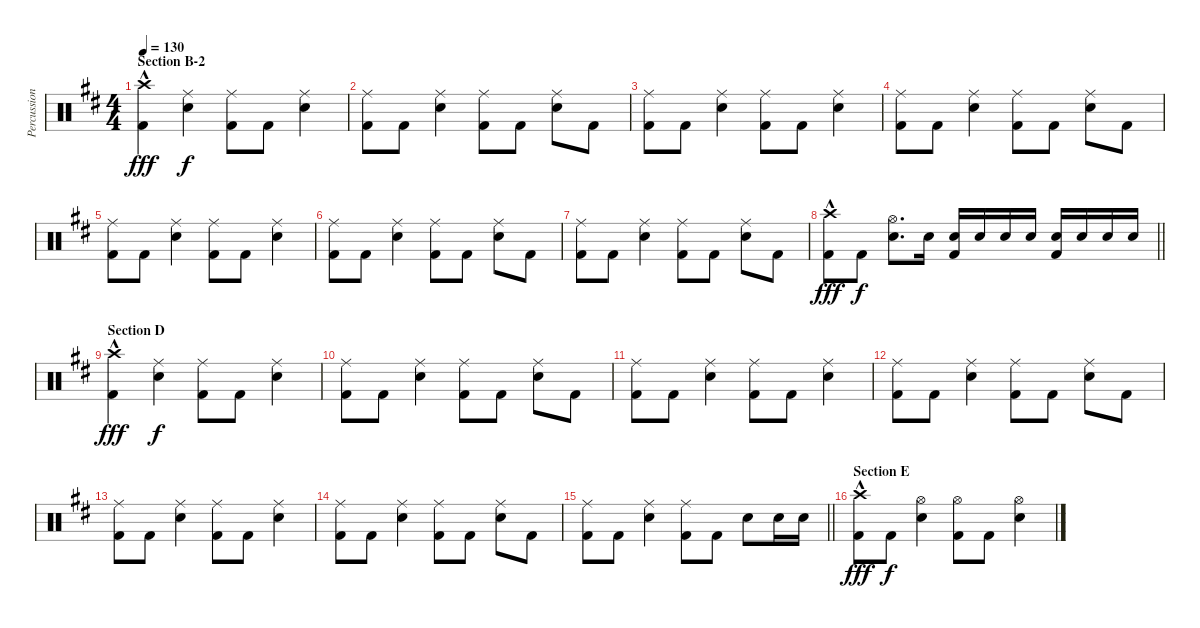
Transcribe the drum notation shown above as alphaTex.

\track ("Percussion" "Percussion") {instrument percussion}
\staff {score}
\articulation defaults
\ts (4 4)
\section ("" "Section B-2")
\tempo 130
\clef neutral
\ks d
("Crash high (hit)" "Kick (hit) 2"{hac}).4{dy fff} ("Ride (middle)" "Snare (hit) 2").4{dy f} ("Ride (middle)" "Kick (hit) 2").8 "Kick (hit) 2".8 ("Ride (middle)" "Snare (hit) 2").4 |
("Ride (middle)" "Kick (hit) 2").8 "Kick (hit) 2".8 ("Ride (middle)" "Snare (hit) 2").4 ("Ride (middle)" "Kick (hit) 2").8 "Kick (hit) 2".8 ("Ride (middle)" "Snare (hit) 2").8 "Kick (hit) 2".8 |
("Ride (middle)" "Kick (hit) 2").8 "Kick (hit) 2".8 ("Ride (middle)" "Snare (hit) 2").4 ("Ride (middle)" "Kick (hit) 2").8 "Kick (hit) 2".8 ("Ride (middle)" "Snare (hit) 2").4 |
("Ride (middle)" "Kick (hit) 2").8 "Kick (hit) 2".8 ("Ride (middle)" "Snare (hit) 2").4 ("Ride (middle)" "Kick (hit) 2").8 "Kick (hit) 2".8 ("Ride (middle)" "Snare (hit) 2").8 "Kick (hit) 2".8 |
("Ride (middle)" "Kick (hit) 2").8 "Kick (hit) 2".8 ("Ride (middle)" "Snare (hit) 2").4 ("Ride (middle)" "Kick (hit) 2").8 "Kick (hit) 2".8 ("Ride (middle)" "Snare (hit) 2").4 |
("Ride (middle)" "Kick (hit) 2").8 "Kick (hit) 2".8 ("Ride (middle)" "Snare (hit) 2").4 ("Ride (middle)" "Kick (hit) 2").8 "Kick (hit) 2".8 ("Ride (middle)" "Snare (hit) 2").8 "Kick (hit) 2".8 |
("Ride (middle)" "Kick (hit) 2").8 "Kick (hit) 2".8 ("Ride (middle)" "Snare (hit) 2").4 ("Ride (middle)" "Kick (hit) 2").8 "Kick (hit) 2".8 ("Ride (middle)" "Snare (hit) 2").8 "Kick (hit) 2".8 |
\barLineRight lightlight
("Crash high (hit)" "Kick (hit) 2"{hac}).8{dy fff} "Kick (hit) 2".8{dy f} ("Hi-Hat (open)" "Snare (hit) 2").8{d} "Snare (hit) 2".16 ("Snare (hit) 2" "Kick (hit) 2").16 "Snare (hit) 2".16 "Snare (hit) 2".16 "Snare (hit) 2".16 ("Snare (hit) 2" "Kick (hit) 2").16 "Snare (hit) 2".16 "Snare (hit) 2".16 "Snare (hit) 2".16 |
\section ("" "Section D")
("Crash high (hit)" "Kick (hit) 2"{hac}).4{dy fff} ("Ride (middle)" "Snare (hit) 2").4{dy f} ("Ride (middle)" "Kick (hit) 2").8 "Kick (hit) 2".8 ("Ride (middle)" "Snare (hit) 2").4 |
("Ride (middle)" "Kick (hit) 2").8 "Kick (hit) 2".8 ("Ride (middle)" "Snare (hit) 2").4 ("Ride (middle)" "Kick (hit) 2").8 "Kick (hit) 2".8 ("Ride (middle)" "Snare (hit) 2").8 "Kick (hit) 2".8 |
("Ride (middle)" "Kick (hit) 2").8 "Kick (hit) 2".8 ("Ride (middle)" "Snare (hit) 2").4 ("Ride (middle)" "Kick (hit) 2").8 "Kick (hit) 2".8 ("Ride (middle)" "Snare (hit) 2").4 |
("Ride (middle)" "Kick (hit) 2").8 "Kick (hit) 2".8 ("Ride (middle)" "Snare (hit) 2").4 ("Ride (middle)" "Kick (hit) 2").8 "Kick (hit) 2".8 ("Ride (middle)" "Snare (hit) 2").8 "Kick (hit) 2".8 |
("Ride (middle)" "Kick (hit) 2").8 "Kick (hit) 2".8 ("Ride (middle)" "Snare (hit) 2").4 ("Ride (middle)" "Kick (hit) 2").8 "Kick (hit) 2".8 ("Ride (middle)" "Snare (hit) 2").4 |
("Ride (middle)" "Kick (hit) 2").8 "Kick (hit) 2".8 ("Ride (middle)" "Snare (hit) 2").4 ("Ride (middle)" "Kick (hit) 2").8 "Kick (hit) 2".8 ("Ride (middle)" "Snare (hit) 2").8 "Kick (hit) 2".8 |
\barLineRight lightlight
("Ride (middle)" "Kick (hit) 2").8 "Kick (hit) 2".8 ("Ride (middle)" "Snare (hit) 2").4 ("Ride (middle)" "Kick (hit) 2").8 "Kick (hit) 2".8 "Snare (hit) 2".8 "Snare (hit) 2".16 "Snare (hit) 2".16 |
\section ("" "Section E")
("Crash high (hit)"{hac} "Kick (hit) 2").8{dy fff} "Kick (hit) 2".8{dy f} ("Hi-Hat (open)" "Snare (hit) 2").4 ("Hi-Hat (open)" "Kick (hit) 2").8 "Kick (hit) 2".8 ("Hi-Hat (open)" "Snare (hit) 2").4
